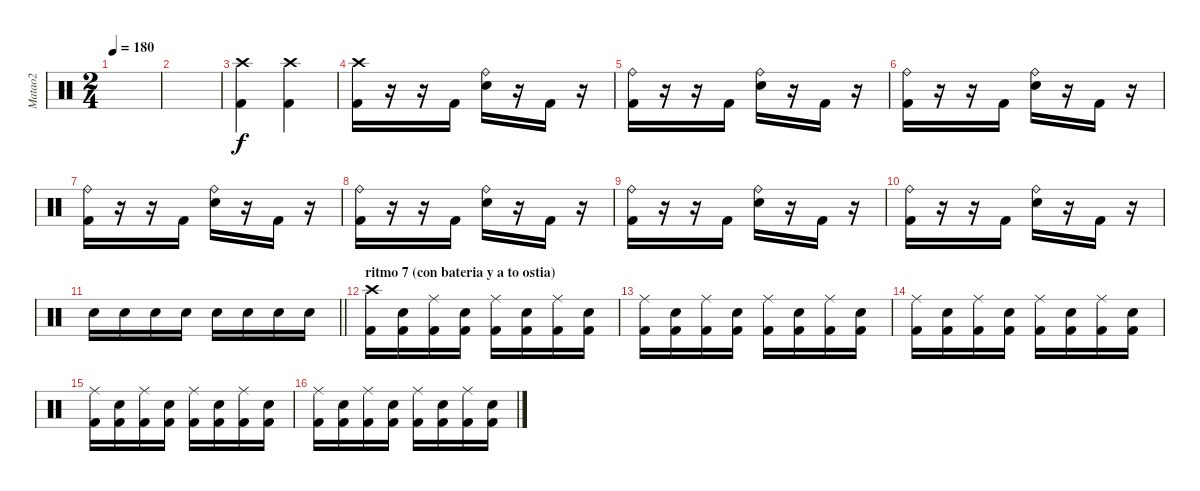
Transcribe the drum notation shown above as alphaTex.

\track ("Matao2" "Matao2") {instrument percussion}
\staff {score}
\articulation defaults
\ts (2 4)
\tempo 180
\clef neutral
\ks c
|
|
("Kick (hit) 2" "Crash high (hit)").4 ("Kick (hit) 2" "Crash high (hit)").4 |
("Kick (hit) 2" "Crash high (hit)").16 r.16 r.16 "Kick (hit) 2".16 ("Electric Snare (hit)" "Ride (bell)").16 r.16 "Kick (hit) 2".16 r.16 |
("Kick (hit) 2" "Ride (bell)").16 r.16 r.16 "Kick (hit) 2".16 ("Electric Snare (hit)" "Ride (bell)").16 r.16 "Kick (hit) 2".16 r.16 |
("Kick (hit) 2" "Ride (bell)").16 r.16 r.16 "Kick (hit) 2".16 ("Electric Snare (hit)" "Ride (bell)").16 r.16 "Kick (hit) 2".16 r.16 |
("Kick (hit) 2" "Ride (bell)").16 r.16 r.16 "Kick (hit) 2".16 ("Electric Snare (hit)" "Ride (bell)").16 r.16 "Kick (hit) 2".16 r.16 |
("Kick (hit) 2" "Ride (bell)").16 r.16 r.16 "Kick (hit) 2".16 ("Electric Snare (hit)" "Ride (bell)").16 r.16 "Kick (hit) 2".16 r.16 |
("Kick (hit) 2" "Ride (bell)").16 r.16 r.16 "Kick (hit) 2".16 ("Electric Snare (hit)" "Ride (bell)").16 r.16 "Kick (hit) 2".16 r.16 |
("Kick (hit) 2" "Ride (bell)").16 r.16 r.16 "Kick (hit) 2".16 ("Electric Snare (hit)" "Ride (bell)").16 r.16 "Kick (hit) 2".16 r.16 |
\barLineRight lightlight "Electric Snare (hit)".16 "Electric Snare (hit)".16 "Electric Snare (hit)".16 "Electric Snare (hit)".16 "Electric Snare (hit)".16 "Electric Snare (hit)".16 "Electric Snare (hit)".16 "Electric Snare (hit)".16
|
\section ("" "ritmo 7 (con bateria y a to ostia)")
("Kick (hit) 2" "Crash high (hit)").16 ("Kick (hit) 2" "Electric Snare (hit)").16 ("Kick (hit) 2" "Ride (middle)").16 ("Kick (hit) 2" "Electric Snare (hit)").16 ("Kick (hit) 2" "Ride (middle)").16 ("Kick (hit) 2" "Electric Snare (hit)").16 ("Kick (hit) 2" "Ride (middle)").16 ("Kick (hit) 2" "Electric Snare (hit)").16 |
("Kick (hit) 2" "Ride (middle)").16 ("Kick (hit) 2" "Electric Snare (hit)").16 ("Kick (hit) 2" "Ride (middle)").16 ("Kick (hit) 2" "Electric Snare (hit)").16 ("Kick (hit) 2" "Ride (middle)").16 ("Kick (hit) 2" "Electric Snare (hit)").16 ("Kick (hit) 2" "Ride (middle)").16 ("Kick (hit) 2" "Electric Snare (hit)").16 |
("Kick (hit) 2" "Ride (middle)").16 ("Kick (hit) 2" "Electric Snare (hit)").16 ("Kick (hit) 2" "Ride (middle)").16 ("Kick (hit) 2" "Electric Snare (hit)").16 ("Kick (hit) 2" "Ride (middle)").16 ("Kick (hit) 2" "Electric Snare (hit)").16 ("Kick (hit) 2" "Ride (middle)").16 ("Kick (hit) 2" "Electric Snare (hit)").16 |
("Kick (hit) 2" "Ride (middle)").16 ("Kick (hit) 2" "Electric Snare (hit)").16 ("Kick (hit) 2" "Ride (middle)").16 ("Kick (hit) 2" "Electric Snare (hit)").16 ("Kick (hit) 2" "Ride (middle)").16 ("Kick (hit) 2" "Electric Snare (hit)").16 ("Kick (hit) 2" "Ride (middle)").16 ("Kick (hit) 2" "Electric Snare (hit)").16 |
("Kick (hit) 2" "Ride (middle)").16 ("Kick (hit) 2" "Electric Snare (hit)").16 ("Kick (hit) 2" "Ride (middle)").16 ("Kick (hit) 2" "Electric Snare (hit)").16 ("Kick (hit) 2" "Ride (middle)").16 ("Kick (hit) 2" "Electric Snare (hit)").16 ("Kick (hit) 2" "Ride (middle)").16 ("Kick (hit) 2" "Electric Snare (hit)").16
